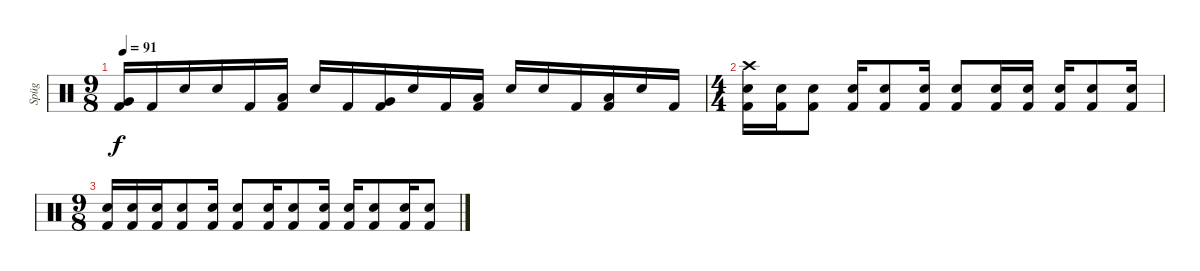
\track ("Spüg" "Spüg") {instrument percussion}
\staff {score}
\articulation defaults
\ts (9 8)
\tempo 91
\clef neutral
\ks c
("Very Low Tom (hit)" "Kick (hit) 2").16{dy f} "Kick (hit) 2".16 "Electric Snare (hit)".16 "Electric Snare (hit)".16 "Kick (hit) 2".16 ("Low Floor Tom (hit)" "Kick (hit) 2").16 "Electric Snare (hit)".16 "Kick (hit) 2".16 ("Very Low Tom (hit)" "Kick (hit) 2").16 "Electric Snare (hit)".16 "Kick (hit) 2".16 ("Low Tom (hit)" "Kick (hit) 2").16 "Electric Snare (hit)".16 "Electric Snare (hit)".16 "Kick (hit) 2".16 ("Low Floor Tom (hit)" "Kick (hit) 2").16 "Electric Snare (hit)".16 "Kick (hit) 2".16 |
\ts (4 4)
("Crash high (hit)" "Electric Snare (hit)" "Kick (hit) 2").16 ("Electric Snare (hit)" "Kick (hit) 2").16 ("Electric Snare (hit)" "Kick (hit) 2").8 ("Electric Snare (hit)" "Kick (hit) 2").16 ("Electric Snare (hit)" "Kick (hit) 2").8 ("Electric Snare (hit)" "Kick (hit) 2").16 ("Electric Snare (hit)" "Kick (hit) 2").8 ("Electric Snare (hit)" "Kick (hit) 2").16 ("Electric Snare (hit)" "Kick (hit) 2").16 ("Electric Snare (hit)" "Kick (hit) 2").16 ("Electric Snare (hit)" "Kick (hit) 2").8 ("Electric Snare (hit)" "Kick (hit) 2").16 |
\ts (9 8)
("Electric Snare (hit)" "Kick (hit) 2").16 ("Electric Snare (hit)" "Kick (hit) 2").16 ("Electric Snare (hit)" "Kick (hit) 2").16 ("Electric Snare (hit)" "Kick (hit) 2").8 ("Electric Snare (hit)" "Kick (hit) 2").16 ("Electric Snare (hit)" "Kick (hit) 2").8 ("Electric Snare (hit)" "Kick (hit) 2").16 ("Electric Snare (hit)" "Kick (hit) 2").8 ("Electric Snare (hit)" "Kick (hit) 2").16 ("Electric Snare (hit)" "Kick (hit) 2").16 ("Electric Snare (hit)" "Kick (hit) 2").8 ("Electric Snare (hit)" "Kick (hit) 2").16 ("Electric Snare (hit)" "Kick (hit) 2").8
